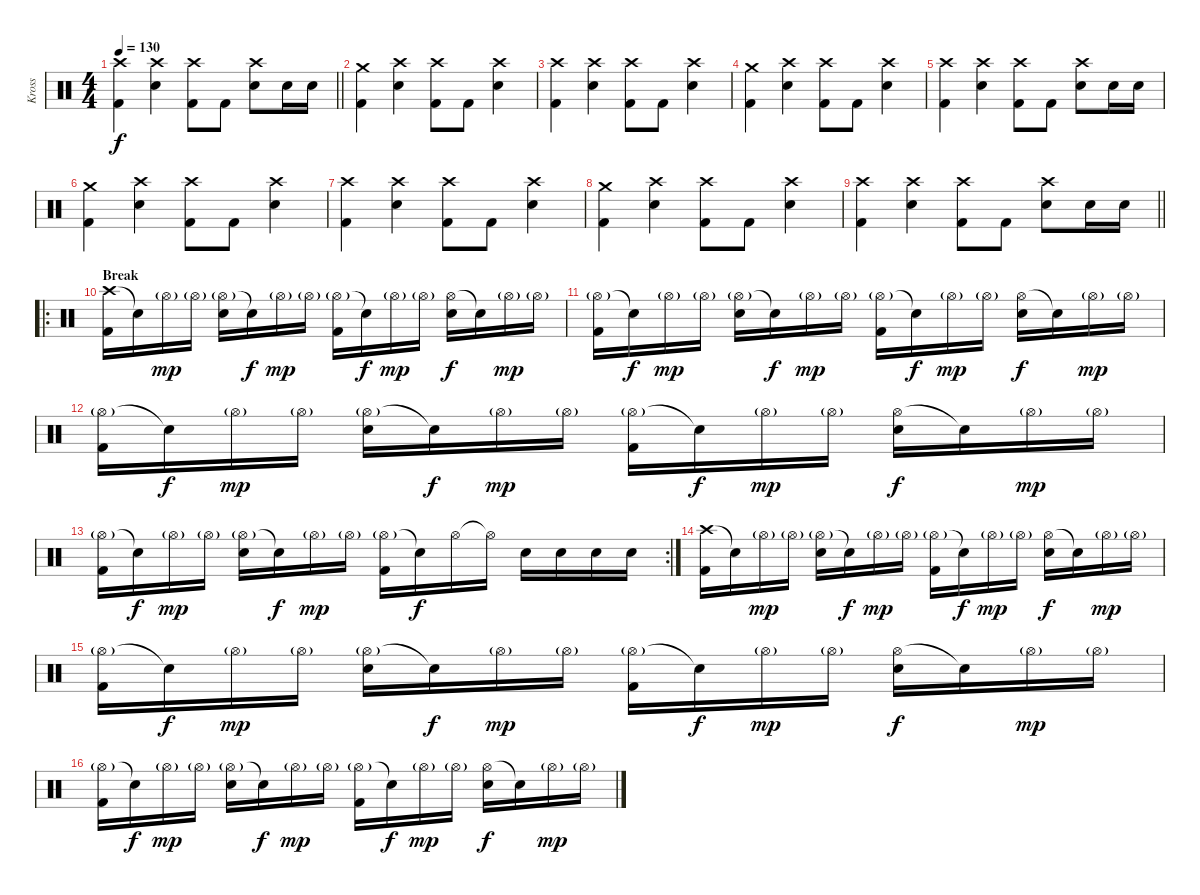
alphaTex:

\track ("Kross" "Kross") {instrument percussion}
\staff {score}
\articulation defaults
\ts (4 4)
\tempo 130
\clef neutral
\barLineRight lightlight
\ks c
("Crash high (hit)" "Kick (hit) 2").4{dy f} ("Crash high (hit)" "Electric Snare (hit)").4 ("Crash high (hit)" "Kick (hit) 2").8 "Kick (hit) 2".8 ("Crash high (hit)" "Electric Snare (hit)").8 "Electric Snare (hit)".16 "Electric Snare (hit)".16 |
("Crash medium (hit)" "Kick (hit) 2").4 ("Crash high (hit)" "Electric Snare (hit)").4 ("Crash high (hit)" "Kick (hit) 2").8 "Kick (hit) 2".8 ("Crash high (hit)" "Electric Snare (hit)").4 |
("Crash high (hit)" "Kick (hit) 2").4 ("Crash high (hit)" "Electric Snare (hit)").4 ("Crash high (hit)" "Kick (hit) 2").8 "Kick (hit) 2".8 ("Crash high (hit)" "Electric Snare (hit)").4 |
("Crash medium (hit)" "Kick (hit) 2").4 ("Crash high (hit)" "Electric Snare (hit)").4 ("Crash high (hit)" "Kick (hit) 2").8 "Kick (hit) 2".8 ("Crash high (hit)" "Electric Snare (hit)").4 |
("Crash high (hit)" "Kick (hit) 2").4 ("Crash high (hit)" "Electric Snare (hit)").4 ("Crash high (hit)" "Kick (hit) 2").8 "Kick (hit) 2".8 ("Crash high (hit)" "Electric Snare (hit)").8 "Electric Snare (hit)".16 "Electric Snare (hit)".16 |
("Crash medium (hit)" "Kick (hit) 2").4 ("Crash high (hit)" "Electric Snare (hit)").4 ("Crash high (hit)" "Kick (hit) 2").8 "Kick (hit) 2".8 ("Crash high (hit)" "Electric Snare (hit)").4 |
("Crash high (hit)" "Kick (hit) 2").4 ("Crash high (hit)" "Electric Snare (hit)").4 ("Crash high (hit)" "Kick (hit) 2").8 "Kick (hit) 2".8 ("Crash high (hit)" "Electric Snare (hit)").4 |
("Crash medium (hit)" "Kick (hit) 2").4 ("Crash high (hit)" "Electric Snare (hit)").4 ("Crash high (hit)" "Kick (hit) 2").8 "Kick (hit) 2".8 ("Crash high (hit)" "Electric Snare (hit)").4 |
\barLineRight lightlight
("Crash high (hit)" "Kick (hit) 2").4 ("Crash high (hit)" "Electric Snare (hit)").4 ("Crash high (hit)" "Kick (hit) 2").8 "Kick (hit) 2".8 ("Crash high (hit)" "Electric Snare (hit)").8 "Electric Snare (hit)".16 "Electric Snare (hit)".16 |
\ro
\section ("" "Break")
("Crash high (hit)" "Kick (hit) 2").16 "Snare (hit)"{t}.16 "Hi-Hat (open)"{g}.16{dy mp} "Hi-Hat (open)"{g}.16 ("Hi-Hat (open)"{g} "Electric Snare (hit)").16 "Snare (hit)"{t}.16{dy f} "Hi-Hat (open)"{g}.16{dy mp} "Hi-Hat (open)"{g}.16 ("Hi-Hat (open)"{g} "Kick (hit) 2").16 "Snare (hit)"{t}.16{dy f} "Hi-Hat (open)"{g}.16{dy mp} "Hi-Hat (open)"{g}.16 ("Hi-Hat (open)" "Electric Snare (hit)").16{dy f} "Snare (hit)"{t}.16 "Hi-Hat (open)"{g}.16{dy mp} "Hi-Hat (open)"{g}.16 |
("Hi-Hat (open)"{g} "Kick (hit) 2").16 "Snare (hit)"{t}.16{dy f} "Hi-Hat (open)"{g}.16{dy mp} "Hi-Hat (open)"{g}.16 ("Hi-Hat (open)"{g} "Electric Snare (hit)").16 "Snare (hit)"{t}.16{dy f} "Hi-Hat (open)"{g}.16{dy mp} "Hi-Hat (open)"{g}.16 ("Hi-Hat (open)"{g} "Kick (hit) 2").16 "Snare (hit)"{t}.16{dy f} "Hi-Hat (open)"{g}.16{dy mp} "Hi-Hat (open)"{g}.16 ("Hi-Hat (open)" "Electric Snare (hit)").16{dy f} "Snare (hit)"{t}.16 "Hi-Hat (open)"{g}.16{dy mp} "Hi-Hat (open)"{g}.16 |
("Hi-Hat (open)"{g} "Kick (hit) 2").16 "Snare (hit)"{t}.16{dy f} "Hi-Hat (open)"{g}.16{dy mp} "Hi-Hat (open)"{g}.16 ("Hi-Hat (open)"{g} "Electric Snare (hit)").16 "Snare (hit)"{t}.16{dy f} "Hi-Hat (open)"{g}.16{dy mp} "Hi-Hat (open)"{g}.16 ("Hi-Hat (open)"{g} "Kick (hit) 2").16 "Snare (hit)"{t}.16{dy f} "Hi-Hat (open)"{g}.16{dy mp} "Hi-Hat (open)"{g}.16 ("Hi-Hat (open)" "Electric Snare (hit)").16{dy f} "Snare (hit)"{t}.16 "Hi-Hat (open)"{g}.16{dy mp} "Hi-Hat (open)"{g}.16 |
\rc 2
("Hi-Hat (open)"{g} "Kick (hit) 2").16 "Snare (hit)"{t}.16{dy f} "Hi-Hat (open)"{g}.16{dy mp} "Hi-Hat (open)"{g}.16 ("Hi-Hat (open)"{g} "Electric Snare (hit)").16 "Snare (hit)"{t}.16{dy f} "Hi-Hat (open)"{g}.16{dy mp} "Hi-Hat (open)"{g}.16 ("Hi-Hat (open)"{g} "Kick (hit) 2").16 "Snare (hit)"{t}.16{dy f} "Hi-Hat (open)".16 "Hi-Hat (open)"{t}.16 "Electric Snare (hit)".16 "Electric Snare (hit)".16 "Electric Snare (hit)".16 "Electric Snare (hit)".16 |
("Crash high (hit)" "Kick (hit) 2").16 "Snare (hit)"{t}.16 "Hi-Hat (open)"{g}.16{dy mp} "Hi-Hat (open)"{g}.16 ("Hi-Hat (open)"{g} "Electric Snare (hit)").16 "Snare (hit)"{t}.16{dy f} "Hi-Hat (open)"{g}.16{dy mp} "Hi-Hat (open)"{g}.16 ("Hi-Hat (open)"{g} "Kick (hit) 2").16 "Snare (hit)"{t}.16{dy f} "Hi-Hat (open)"{g}.16{dy mp} "Hi-Hat (open)"{g}.16 ("Hi-Hat (open)" "Electric Snare (hit)").16{dy f} "Snare (hit)"{t}.16 "Hi-Hat (open)"{g}.16{dy mp} "Hi-Hat (open)"{g}.16 |
("Hi-Hat (open)"{g} "Kick (hit) 2").16 "Snare (hit)"{t}.16{dy f} "Hi-Hat (open)"{g}.16{dy mp} "Hi-Hat (open)"{g}.16 ("Hi-Hat (open)"{g} "Electric Snare (hit)").16 "Snare (hit)"{t}.16{dy f} "Hi-Hat (open)"{g}.16{dy mp} "Hi-Hat (open)"{g}.16 ("Hi-Hat (open)"{g} "Kick (hit) 2").16 "Snare (hit)"{t}.16{dy f} "Hi-Hat (open)"{g}.16{dy mp} "Hi-Hat (open)"{g}.16 ("Hi-Hat (open)" "Electric Snare (hit)").16{dy f} "Snare (hit)"{t}.16 "Hi-Hat (open)"{g}.16{dy mp} "Hi-Hat (open)"{g}.16 |
("Hi-Hat (open)"{g} "Kick (hit) 2").16 "Snare (hit)"{t}.16{dy f} "Hi-Hat (open)"{g}.16{dy mp} "Hi-Hat (open)"{g}.16 ("Hi-Hat (open)"{g} "Electric Snare (hit)").16 "Snare (hit)"{t}.16{dy f} "Hi-Hat (open)"{g}.16{dy mp} "Hi-Hat (open)"{g}.16 ("Hi-Hat (open)"{g} "Kick (hit) 2").16 "Snare (hit)"{t}.16{dy f} "Hi-Hat (open)"{g}.16{dy mp} "Hi-Hat (open)"{g}.16 ("Hi-Hat (open)" "Electric Snare (hit)").16{dy f} "Snare (hit)"{t}.16 "Hi-Hat (open)"{g}.16{dy mp} "Hi-Hat (open)"{g}.16
